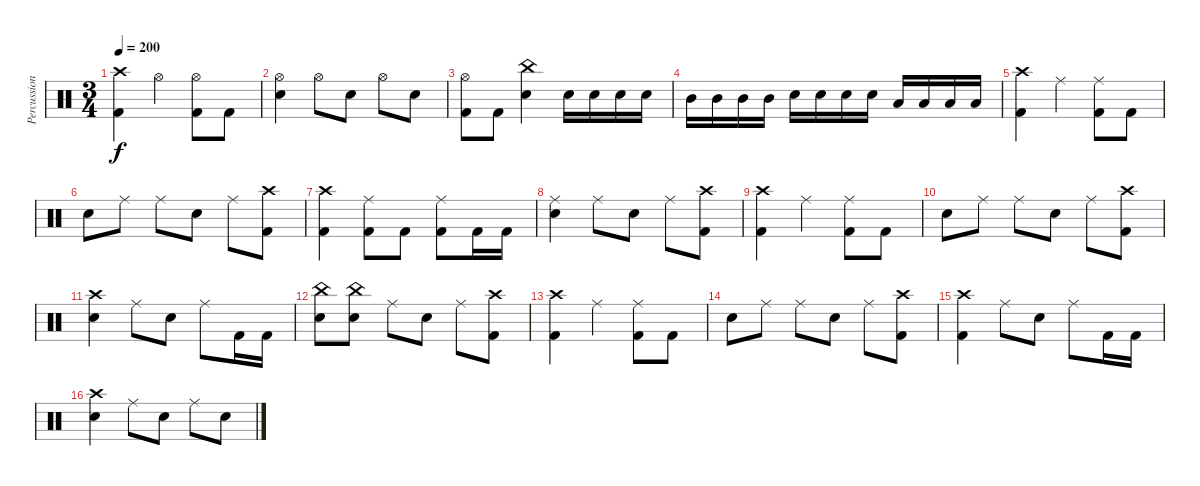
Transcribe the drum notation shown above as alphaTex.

\track ("Percussion" "Percussion") {instrument percussion}
\staff {score}
\articulation defaults
\ts (3 4)
\tempo 200
\clef neutral
\ks c
("Crash high (hit)" "Kick (hit) 2").4{dy f} "Hi-Hat (open)".4 ("Hi-Hat (open)" "Kick (hit) 2").8 "Kick (hit) 2".8 |
("Hi-Hat (open)" "Electric Snare (hit)").4 "Hi-Hat (open)".8 "Electric Snare (hit)".8 "Hi-Hat (open)".8 "Electric Snare (hit)".8 |
("Hi-Hat (open)" "Kick (hit) 2").8 "Kick (hit) 2".8 ("China (hit)" "Electric Snare (hit)").4 "Electric Snare (hit)".16 "Electric Snare (hit)".16 "Electric Snare (hit)".16 "Electric Snare (hit)".16 |
"Mid Tom (hit)".16 "Mid Tom (hit)".16 "Mid Tom (hit)".16 "Mid Tom (hit)".16 "Electric Snare (hit)".16 "Electric Snare (hit)".16 "Electric Snare (hit)".16 "Electric Snare (hit)".16 "Low Tom (hit)".16 "Low Tom (hit)".16 "Low Tom (hit)".16 "Low Tom (hit)".16 |
("Crash high (hit)" "Kick (hit) 2").4 "Ride (middle)".4 ("Ride (middle)" "Kick (hit) 2").8 "Kick (hit) 2".8 |
"Electric Snare (hit)".8 "Ride (middle)".8 "Ride (middle)".8 "Electric Snare (hit)".8 "Ride (middle)".8 ("Crash high (hit)" "Kick (hit) 2").8 |
("Crash high (hit)" "Kick (hit) 2").4 ("Ride (middle)" "Kick (hit) 2").8 "Kick (hit) 2".8 ("Ride (middle)" "Kick (hit) 2").8 "Kick (hit) 2".16 "Kick (hit) 2".16 |
("Ride (middle)" "Electric Snare (hit)").4 "Ride (middle)".8 "Electric Snare (hit)".8 "Ride (middle)".8 ("Crash high (hit)" "Kick (hit) 2").8 |
("Crash high (hit)" "Kick (hit) 2").4 "Ride (middle)".4 ("Ride (middle)" "Kick (hit) 2").8 "Kick (hit) 2".8 |
"Electric Snare (hit)".8 "Ride (middle)".8 "Ride (middle)".8 "Electric Snare (hit)".8 "Ride (middle)".8 ("Crash high (hit)" "Kick (hit) 2").8 |
("Crash high (hit)" "Electric Snare (hit)").4 "Ride (middle)".8 "Electric Snare (hit)".8 "Ride (middle)".8 "Kick (hit) 2".16 "Kick (hit) 2".16 |
("China (hit)" "Electric Snare (hit)").8 ("China (hit)" "Electric Snare (hit)").8 "Ride (middle)".8 "Electric Snare (hit)".8 "Ride (middle)".8 ("Crash high (hit)" "Kick (hit) 2").8 |
("Crash high (hit)" "Kick (hit) 2").4 "Ride (middle)".4 ("Ride (middle)" "Kick (hit) 2").8 "Kick (hit) 2".8 |
"Electric Snare (hit)".8 "Ride (middle)".8 "Ride (middle)".8 "Electric Snare (hit)".8 "Ride (middle)".8 ("Crash high (hit)" "Kick (hit) 2").8 |
("Crash high (hit)" "Kick (hit) 2").4 "Ride (middle)".8 "Electric Snare (hit)".8 "Ride (middle)".8 "Kick (hit) 2".16 "Kick (hit) 2".16 |
("Crash high (hit)" "Electric Snare (hit)").4 "Ride (middle)".8 "Electric Snare (hit)".8 "Ride (middle)".8 "Electric Snare (hit)".8
